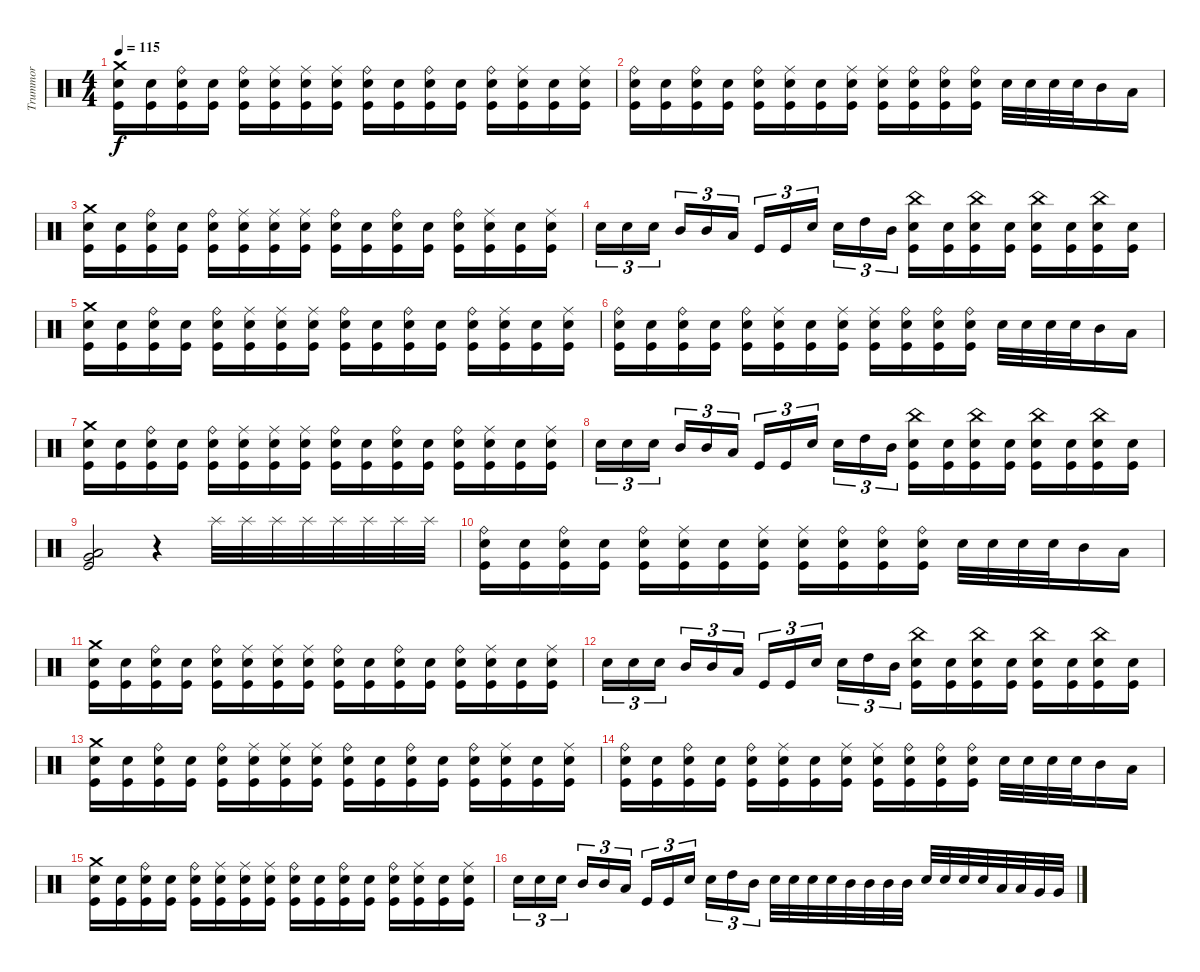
\track ("Trummor" "Trummor") {instrument percussion}
\staff {score}
\articulation defaults
\ts (4 4)
\tempo 115
\clef neutral
\ks c
("Crash medium (hit)" "Electric Snare (hit)" "Kick (hit)").16{dy f} ("Electric Snare (hit)" "Kick (hit)").16 ("Ride (bell)" "Electric Snare (hit)" "Kick (hit)").16 ("Electric Snare (hit)" "Kick (hit)").16 ("Ride (bell)" "Electric Snare (hit)" "Kick (hit)").16 ("Ride (middle)" "Electric Snare (hit)" "Kick (hit)").16 ("Ride (middle)" "Electric Snare (hit)" "Kick (hit)").16 ("Ride (middle)" "Electric Snare (hit)" "Kick (hit)").16 ("Ride (bell)" "Electric Snare (hit)" "Kick (hit)").16 ("Electric Snare (hit)" "Kick (hit)").16 ("Ride (bell)" "Electric Snare (hit)" "Kick (hit)").16 ("Electric Snare (hit)" "Kick (hit)").16 ("Ride (bell)" "Electric Snare (hit)" "Kick (hit)").16 ("Ride (middle)" "Electric Snare (hit)" "Kick (hit)").16 ("Electric Snare (hit)" "Kick (hit)").16 ("Ride (middle)" "Electric Snare (hit)" "Kick (hit)").16 |
("Ride (bell)" "Electric Snare (hit)" "Kick (hit)").16 ("Electric Snare (hit)" "Kick (hit)").16 ("Ride (bell)" "Electric Snare (hit)" "Kick (hit)").16 ("Electric Snare (hit)" "Kick (hit)").16 ("Ride (bell)" "Electric Snare (hit)" "Kick (hit)").16 ("Ride (middle)" "Electric Snare (hit)" "Kick (hit)").16 ("Electric Snare (hit)" "Kick (hit)").16 ("Ride (middle)" "Electric Snare (hit)" "Kick (hit)").16 ("Ride (middle)" "Electric Snare (hit)" "Kick (hit)").16 ("Ride (bell)" "Electric Snare (hit)" "Kick (hit)").16 ("Ride (bell)" "Electric Snare (hit)" "Kick (hit)").16 ("Ride (bell)" "Electric Snare (hit)" "Kick (hit)").16 "Electric Snare (hit)".32 "Electric Snare (hit)".32 "Electric Snare (hit)".32 "Electric Snare (hit)".32 "Mid Tom (hit)".16 "Low Tom (hit)".16 |
("Crash medium (hit)" "Electric Snare (hit)" "Kick (hit)").16 ("Electric Snare (hit)" "Kick (hit)").16 ("Ride (bell)" "Electric Snare (hit)" "Kick (hit)").16 ("Electric Snare (hit)" "Kick (hit)").16 ("Ride (bell)" "Electric Snare (hit)" "Kick (hit)").16 ("Ride (middle)" "Electric Snare (hit)" "Kick (hit)").16 ("Ride (middle)" "Electric Snare (hit)" "Kick (hit)").16 ("Ride (middle)" "Electric Snare (hit)" "Kick (hit)").16 ("Ride (bell)" "Electric Snare (hit)" "Kick (hit)").16 ("Electric Snare (hit)" "Kick (hit)").16 ("Ride (bell)" "Electric Snare (hit)" "Kick (hit)").16 ("Electric Snare (hit)" "Kick (hit)").16 ("Ride (bell)" "Electric Snare (hit)" "Kick (hit)").16 ("Ride (middle)" "Electric Snare (hit)" "Kick (hit)").16 ("Electric Snare (hit)" "Kick (hit)").16 ("Ride (middle)" "Electric Snare (hit)" "Kick (hit)").16 |
"Electric Snare (hit)".16{tu (3 2)} "Electric Snare (hit)".16{tu (3 2)} "Electric Snare (hit)".16{tu (3 2) beam splitsecondary} "Mid Tom (hit)".16{tu (3 2)} "Mid Tom (hit)".16{tu (3 2)} "Low Tom (hit)".16{tu (3 2)} "Kick (hit)".16{tu (3 2)} "Kick (hit)".16{tu (3 2)} "Electric Snare (hit)".16{tu (3 2) beam splitsecondary} "Electric Snare (hit)".16{tu (3 2)} "High Tom (hit)".16{tu (3 2)} "Mid Tom (hit)".16{tu (3 2)} ("China (hit)" "Electric Snare (hit)" "Kick (hit)").16 ("Electric Snare (hit)" "Kick (hit)").16 ("China (hit)" "Electric Snare (hit)" "Kick (hit)").16 ("Electric Snare (hit)" "Kick (hit)").16 ("China (hit)" "Electric Snare (hit)" "Kick (hit)").16 ("Electric Snare (hit)" "Kick (hit)").16 ("China (hit)" "Electric Snare (hit)" "Kick (hit)").16 ("Electric Snare (hit)" "Kick (hit)").16 |
("Crash medium (hit)" "Electric Snare (hit)" "Kick (hit)").16 ("Electric Snare (hit)" "Kick (hit)").16 ("Ride (bell)" "Electric Snare (hit)" "Kick (hit)").16 ("Electric Snare (hit)" "Kick (hit)").16 ("Ride (bell)" "Electric Snare (hit)" "Kick (hit)").16 ("Ride (middle)" "Electric Snare (hit)" "Kick (hit)").16 ("Ride (middle)" "Electric Snare (hit)" "Kick (hit)").16 ("Ride (middle)" "Electric Snare (hit)" "Kick (hit)").16 ("Ride (bell)" "Electric Snare (hit)" "Kick (hit)").16 ("Electric Snare (hit)" "Kick (hit)").16 ("Ride (bell)" "Electric Snare (hit)" "Kick (hit)").16 ("Electric Snare (hit)" "Kick (hit)").16 ("Ride (bell)" "Electric Snare (hit)" "Kick (hit)").16 ("Ride (middle)" "Electric Snare (hit)" "Kick (hit)").16 ("Electric Snare (hit)" "Kick (hit)").16 ("Ride (middle)" "Electric Snare (hit)" "Kick (hit)").16 |
("Ride (bell)" "Electric Snare (hit)" "Kick (hit)").16 ("Electric Snare (hit)" "Kick (hit)").16 ("Ride (bell)" "Electric Snare (hit)" "Kick (hit)").16 ("Electric Snare (hit)" "Kick (hit)").16 ("Ride (bell)" "Electric Snare (hit)" "Kick (hit)").16 ("Ride (middle)" "Electric Snare (hit)" "Kick (hit)").16 ("Electric Snare (hit)" "Kick (hit)").16 ("Ride (middle)" "Electric Snare (hit)" "Kick (hit)").16 ("Ride (middle)" "Electric Snare (hit)" "Kick (hit)").16 ("Ride (bell)" "Electric Snare (hit)" "Kick (hit)").16 ("Ride (bell)" "Electric Snare (hit)" "Kick (hit)").16 ("Ride (bell)" "Electric Snare (hit)" "Kick (hit)").16 "Electric Snare (hit)".32 "Electric Snare (hit)".32 "Electric Snare (hit)".32 "Electric Snare (hit)".32 "Mid Tom (hit)".16 "Low Tom (hit)".16 |
("Crash medium (hit)" "Electric Snare (hit)" "Kick (hit)").16 ("Electric Snare (hit)" "Kick (hit)").16 ("Ride (bell)" "Electric Snare (hit)" "Kick (hit)").16 ("Electric Snare (hit)" "Kick (hit)").16 ("Ride (bell)" "Electric Snare (hit)" "Kick (hit)").16 ("Ride (middle)" "Electric Snare (hit)" "Kick (hit)").16 ("Ride (middle)" "Electric Snare (hit)" "Kick (hit)").16 ("Ride (middle)" "Electric Snare (hit)" "Kick (hit)").16 ("Ride (bell)" "Electric Snare (hit)" "Kick (hit)").16 ("Electric Snare (hit)" "Kick (hit)").16 ("Ride (bell)" "Electric Snare (hit)" "Kick (hit)").16 ("Electric Snare (hit)" "Kick (hit)").16 ("Ride (bell)" "Electric Snare (hit)" "Kick (hit)").16 ("Ride (middle)" "Electric Snare (hit)" "Kick (hit)").16 ("Electric Snare (hit)" "Kick (hit)").16 ("Ride (middle)" "Electric Snare (hit)" "Kick (hit)").16 |
"Electric Snare (hit)".16{tu (3 2)} "Electric Snare (hit)".16{tu (3 2)} "Electric Snare (hit)".16{tu (3 2) beam splitsecondary} "Mid Tom (hit)".16{tu (3 2)} "Mid Tom (hit)".16{tu (3 2)} "Low Tom (hit)".16{tu (3 2)} "Kick (hit)".16{tu (3 2)} "Kick (hit)".16{tu (3 2)} "Electric Snare (hit)".16{tu (3 2) beam splitsecondary} "Electric Snare (hit)".16{tu (3 2)} "High Tom (hit)".16{tu (3 2)} "Mid Tom (hit)".16{tu (3 2)} ("China (hit)" "Electric Snare (hit)" "Kick (hit)").16 ("Electric Snare (hit)" "Kick (hit)").16 ("China (hit)" "Electric Snare (hit)" "Kick (hit)").16 ("Electric Snare (hit)" "Kick (hit)").16 ("China (hit)" "Electric Snare (hit)" "Kick (hit)").16 ("Electric Snare (hit)" "Kick (hit)").16 ("China (hit)" "Electric Snare (hit)" "Kick (hit)").16 ("Electric Snare (hit)" "Kick (hit)").16 |
("Low Floor Tom (hit)" "Very Low Tom (hit)" "Kick (hit)").2 r.4 "Splash (hit)".32 "Splash (hit)".32 "Splash (hit)".32 "Splash (hit)".32 "Splash (hit)".32 "Splash (hit)".32 "Splash (hit)".32 "Splash (hit)".32 |
("Ride (bell)" "Electric Snare (hit)" "Kick (hit)").16 ("Electric Snare (hit)" "Kick (hit)").16 ("Ride (bell)" "Electric Snare (hit)" "Kick (hit)").16 ("Electric Snare (hit)" "Kick (hit)").16 ("Ride (bell)" "Electric Snare (hit)" "Kick (hit)").16 ("Ride (middle)" "Electric Snare (hit)" "Kick (hit)").16 ("Electric Snare (hit)" "Kick (hit)").16 ("Ride (middle)" "Electric Snare (hit)" "Kick (hit)").16 ("Ride (middle)" "Electric Snare (hit)" "Kick (hit)").16 ("Ride (bell)" "Electric Snare (hit)" "Kick (hit)").16 ("Ride (bell)" "Electric Snare (hit)" "Kick (hit)").16 ("Ride (bell)" "Electric Snare (hit)" "Kick (hit)").16 "Electric Snare (hit)".32 "Electric Snare (hit)".32 "Electric Snare (hit)".32 "Electric Snare (hit)".32 "Mid Tom (hit)".16 "Low Tom (hit)".16 |
("Crash medium (hit)" "Electric Snare (hit)" "Kick (hit)").16 ("Electric Snare (hit)" "Kick (hit)").16 ("Ride (bell)" "Electric Snare (hit)" "Kick (hit)").16 ("Electric Snare (hit)" "Kick (hit)").16 ("Ride (bell)" "Electric Snare (hit)" "Kick (hit)").16 ("Ride (middle)" "Electric Snare (hit)" "Kick (hit)").16 ("Ride (middle)" "Electric Snare (hit)" "Kick (hit)").16 ("Ride (middle)" "Electric Snare (hit)" "Kick (hit)").16 ("Ride (bell)" "Electric Snare (hit)" "Kick (hit)").16 ("Electric Snare (hit)" "Kick (hit)").16 ("Ride (bell)" "Electric Snare (hit)" "Kick (hit)").16 ("Electric Snare (hit)" "Kick (hit)").16 ("Ride (bell)" "Electric Snare (hit)" "Kick (hit)").16 ("Ride (middle)" "Electric Snare (hit)" "Kick (hit)").16 ("Electric Snare (hit)" "Kick (hit)").16 ("Ride (middle)" "Electric Snare (hit)" "Kick (hit)").16 |
"Electric Snare (hit)".16{tu (3 2)} "Electric Snare (hit)".16{tu (3 2)} "Electric Snare (hit)".16{tu (3 2) beam splitsecondary} "Mid Tom (hit)".16{tu (3 2)} "Mid Tom (hit)".16{tu (3 2)} "Low Tom (hit)".16{tu (3 2)} "Kick (hit)".16{tu (3 2)} "Kick (hit)".16{tu (3 2)} "Electric Snare (hit)".16{tu (3 2) beam splitsecondary} "Electric Snare (hit)".16{tu (3 2)} "High Tom (hit)".16{tu (3 2)} "Mid Tom (hit)".16{tu (3 2)} ("China (hit)" "Electric Snare (hit)" "Kick (hit)").16 ("Electric Snare (hit)" "Kick (hit)").16 ("China (hit)" "Electric Snare (hit)" "Kick (hit)").16 ("Electric Snare (hit)" "Kick (hit)").16 ("China (hit)" "Electric Snare (hit)" "Kick (hit)").16 ("Electric Snare (hit)" "Kick (hit)").16 ("China (hit)" "Electric Snare (hit)" "Kick (hit)").16 ("Electric Snare (hit)" "Kick (hit)").16 |
("Crash medium (hit)" "Electric Snare (hit)" "Kick (hit)").16 ("Electric Snare (hit)" "Kick (hit)").16 ("Ride (bell)" "Electric Snare (hit)" "Kick (hit)").16 ("Electric Snare (hit)" "Kick (hit)").16 ("Ride (bell)" "Electric Snare (hit)" "Kick (hit)").16 ("Ride (middle)" "Electric Snare (hit)" "Kick (hit)").16 ("Ride (middle)" "Electric Snare (hit)" "Kick (hit)").16 ("Ride (middle)" "Electric Snare (hit)" "Kick (hit)").16 ("Ride (bell)" "Electric Snare (hit)" "Kick (hit)").16 ("Electric Snare (hit)" "Kick (hit)").16 ("Ride (bell)" "Electric Snare (hit)" "Kick (hit)").16 ("Electric Snare (hit)" "Kick (hit)").16 ("Ride (bell)" "Electric Snare (hit)" "Kick (hit)").16 ("Ride (middle)" "Electric Snare (hit)" "Kick (hit)").16 ("Electric Snare (hit)" "Kick (hit)").16 ("Ride (middle)" "Electric Snare (hit)" "Kick (hit)").16 |
("Ride (bell)" "Electric Snare (hit)" "Kick (hit)").16 ("Electric Snare (hit)" "Kick (hit)").16 ("Ride (bell)" "Electric Snare (hit)" "Kick (hit)").16 ("Electric Snare (hit)" "Kick (hit)").16 ("Ride (bell)" "Electric Snare (hit)" "Kick (hit)").16 ("Ride (middle)" "Electric Snare (hit)" "Kick (hit)").16 ("Electric Snare (hit)" "Kick (hit)").16 ("Ride (middle)" "Electric Snare (hit)" "Kick (hit)").16 ("Ride (middle)" "Electric Snare (hit)" "Kick (hit)").16 ("Ride (bell)" "Electric Snare (hit)" "Kick (hit)").16 ("Ride (bell)" "Electric Snare (hit)" "Kick (hit)").16 ("Ride (bell)" "Electric Snare (hit)" "Kick (hit)").16 "Electric Snare (hit)".32 "Electric Snare (hit)".32 "Electric Snare (hit)".32 "Electric Snare (hit)".32 "Mid Tom (hit)".16 "Low Tom (hit)".16 |
("Crash medium (hit)" "Electric Snare (hit)" "Kick (hit)").16 ("Electric Snare (hit)" "Kick (hit)").16 ("Ride (bell)" "Electric Snare (hit)" "Kick (hit)").16 ("Electric Snare (hit)" "Kick (hit)").16 ("Ride (bell)" "Electric Snare (hit)" "Kick (hit)").16 ("Ride (middle)" "Electric Snare (hit)" "Kick (hit)").16 ("Ride (middle)" "Electric Snare (hit)" "Kick (hit)").16 ("Ride (middle)" "Electric Snare (hit)" "Kick (hit)").16 ("Ride (bell)" "Electric Snare (hit)" "Kick (hit)").16 ("Electric Snare (hit)" "Kick (hit)").16 ("Ride (bell)" "Electric Snare (hit)" "Kick (hit)").16 ("Electric Snare (hit)" "Kick (hit)").16 ("Ride (bell)" "Electric Snare (hit)" "Kick (hit)").16 ("Ride (middle)" "Electric Snare (hit)" "Kick (hit)").16 ("Electric Snare (hit)" "Kick (hit)").16 ("Ride (middle)" "Electric Snare (hit)" "Kick (hit)").16 |
"Electric Snare (hit)".16{tu (3 2)} "Electric Snare (hit)".16{tu (3 2)} "Electric Snare (hit)".16{tu (3 2) beam splitsecondary} "Mid Tom (hit)".16{tu (3 2)} "Mid Tom (hit)".16{tu (3 2)} "Low Tom (hit)".16{tu (3 2)} "Kick (hit)".16{tu (3 2)} "Kick (hit)".16{tu (3 2)} "Electric Snare (hit)".16{tu (3 2) beam splitsecondary} "Electric Snare (hit)".16{tu (3 2)} "High Tom (hit)".16{tu (3 2)} "Mid Tom (hit)".16{tu (3 2)} "Electric Snare (hit)".32 "Electric Snare (hit)".32 "Electric Snare (hit)".32 "Electric Snare (hit)".32 "Mid Tom (hit)".32 "Mid Tom (hit)".32 "Mid Tom (hit)".32 "Mid Tom (hit)".32 "Electric Snare (hit)".32 "Electric Snare (hit)".32 "Electric Snare (hit)".32 "Electric Snare (hit)".32 "Low Tom (hit)".32 "Low Tom (hit)".32 "Very Low Tom (hit)".32 "Very Low Tom (hit)".32
